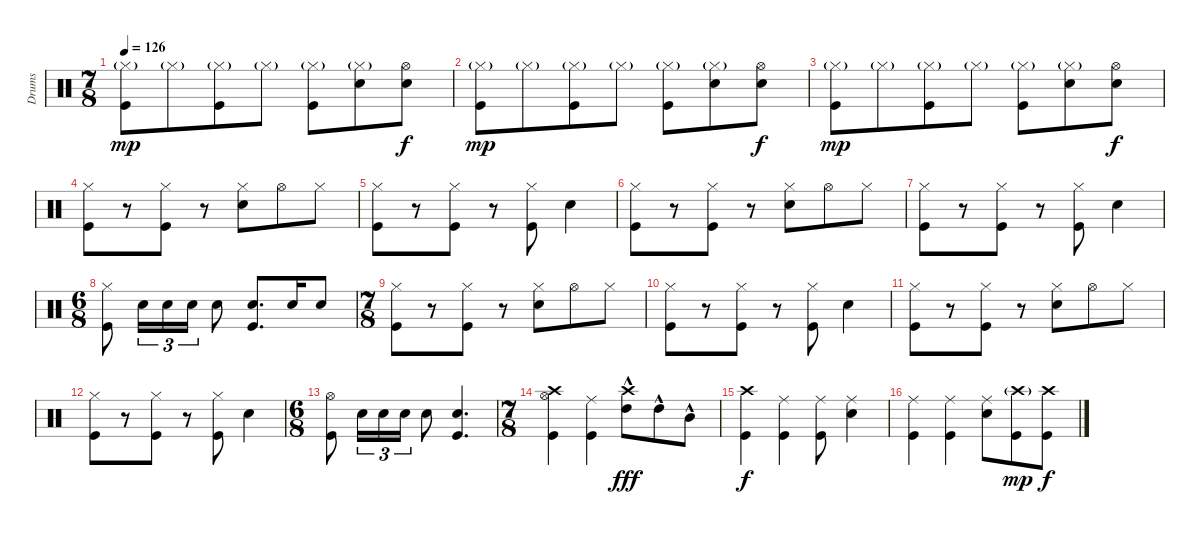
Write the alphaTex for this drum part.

\track ("Drums" "Drums") {instrument percussion}
\staff {score}
\articulation defaults
\ts (7 8)
\tempo 126
\clef neutral
\ks c
("Hi-Hat (closed)"{g} "Kick (hit)").8{dy mp} "Hi-Hat (closed)"{g}.8 ("Hi-Hat (closed)"{g} "Kick (hit)").8 "Hi-Hat (closed)"{g}.8 ("Hi-Hat (closed)"{g} "Kick (hit)").8 ("Hi-Hat (closed)"{g} "Snare (hit) 2").8 ("Hi-Hat (open)" "Snare (hit) 2").8{dy f} |
("Hi-Hat (closed)"{g} "Kick (hit)").8{dy mp} "Hi-Hat (closed)"{g}.8 ("Hi-Hat (closed)"{g} "Kick (hit)").8 "Hi-Hat (closed)"{g}.8 ("Hi-Hat (closed)"{g} "Kick (hit)").8 ("Hi-Hat (closed)"{g} "Snare (hit) 2").8 ("Hi-Hat (open)" "Snare (hit) 2").8{dy f} |
("Hi-Hat (closed)"{g} "Kick (hit)").8{dy mp} "Hi-Hat (closed)"{g}.8 ("Hi-Hat (closed)"{g} "Kick (hit)").8 "Hi-Hat (closed)"{g}.8 ("Hi-Hat (closed)"{g} "Kick (hit)").8 ("Hi-Hat (closed)"{g} "Snare (hit) 2").8 ("Hi-Hat (open)" "Snare (hit) 2").8{dy f} |
("Hi-Hat (closed)" "Kick (hit)").8{volume 13} r.8 ("Hi-Hat (closed)" "Kick (hit)").8 r.8 ("Hi-Hat (closed)" "Snare (hit) 2").8 "Hi-Hat (open)".8 "Hi-Hat (closed)".8 |
("Hi-Hat (closed)" "Kick (hit)").8 r.8 ("Hi-Hat (closed)" "Kick (hit)").8 r.8 ("Hi-Hat (closed)" "Kick (hit)").8 "Snare (hit) 2".4 |
("Hi-Hat (closed)" "Kick (hit)").8 r.8 ("Hi-Hat (closed)" "Kick (hit)").8 r.8 ("Hi-Hat (closed)" "Snare (hit) 2").8 "Hi-Hat (open)".8 "Hi-Hat (closed)".8 |
("Hi-Hat (closed)" "Kick (hit)").8 r.8 ("Hi-Hat (closed)" "Kick (hit)").8 r.8 ("Hi-Hat (closed)" "Kick (hit)").8 "Snare (hit) 2".4 |
\ts (6 8)
("Hi-Hat (closed)" "Kick (hit)").8 "Snare (hit) 2".16{tu (3 2)} "Snare (hit) 2".16{tu (3 2)} "Snare (hit) 2".16{tu (3 2)} "Snare (hit) 2".8 ("Snare (hit) 2" "Kick (hit)").8{d} "Snare (hit) 2".16 "Snare (hit) 2".8 |
\ts (7 8)
("Hi-Hat (closed)" "Kick (hit)").8 r.8 ("Hi-Hat (closed)" "Kick (hit)").8 r.8 ("Hi-Hat (closed)" "Snare (hit) 2").8 "Hi-Hat (open)".8 "Hi-Hat (closed)".8 |
("Hi-Hat (closed)" "Kick (hit)").8 r.8 ("Hi-Hat (closed)" "Kick (hit)").8 r.8 ("Hi-Hat (closed)" "Kick (hit)").8 "Snare (hit) 2".4 |
("Hi-Hat (closed)" "Kick (hit)").8 r.8 ("Hi-Hat (closed)" "Kick (hit)").8 r.8 ("Hi-Hat (closed)" "Snare (hit) 2").8 "Hi-Hat (open)".8 "Hi-Hat (closed)".8 |
("Hi-Hat (closed)" "Kick (hit)").8 r.8 ("Hi-Hat (closed)" "Kick (hit)").8 r.8 ("Hi-Hat (closed)" "Kick (hit)").8 "Snare (hit) 2".4 |
\ts (6 8)
("Hi-Hat (open)" "Kick (hit)").8 "Snare (hit) 2".16{tu (3 2)} "Snare (hit) 2".16{tu (3 2)} "Snare (hit) 2".16{tu (3 2)} "Snare (hit) 2".8 ("Snare (hit) 2" "Kick (hit)").4{d} |
\ts (7 8)
("Crash high (hit)" "Hi-Hat (open)" "Kick (hit)").4 ("Ride (middle)" "Kick (hit)").4 ("Crash high (hit)" "High Tom (hit)"{hac}).8{dy fff} "High Tom (hit)"{hac}.8 "Mid Tom (hit)"{hac}.8 |
("Crash high (hit)" "Kick (hit)").4{dy f} ("Ride (middle)" "Kick (hit)").4 ("Ride (middle)" "Kick (hit)").8 ("Ride (middle)" "Snare (hit) 2").4 |
("Ride (middle)" "Kick (hit)").4 ("Ride (middle)" "Kick (hit)").4 ("Ride (middle)" "Snare (hit) 2").8 ("Crash high (hit)"{g} "Kick (hit)").8{dy mp} ("Crash high (hit)" "Kick (hit)").8{dy f}
